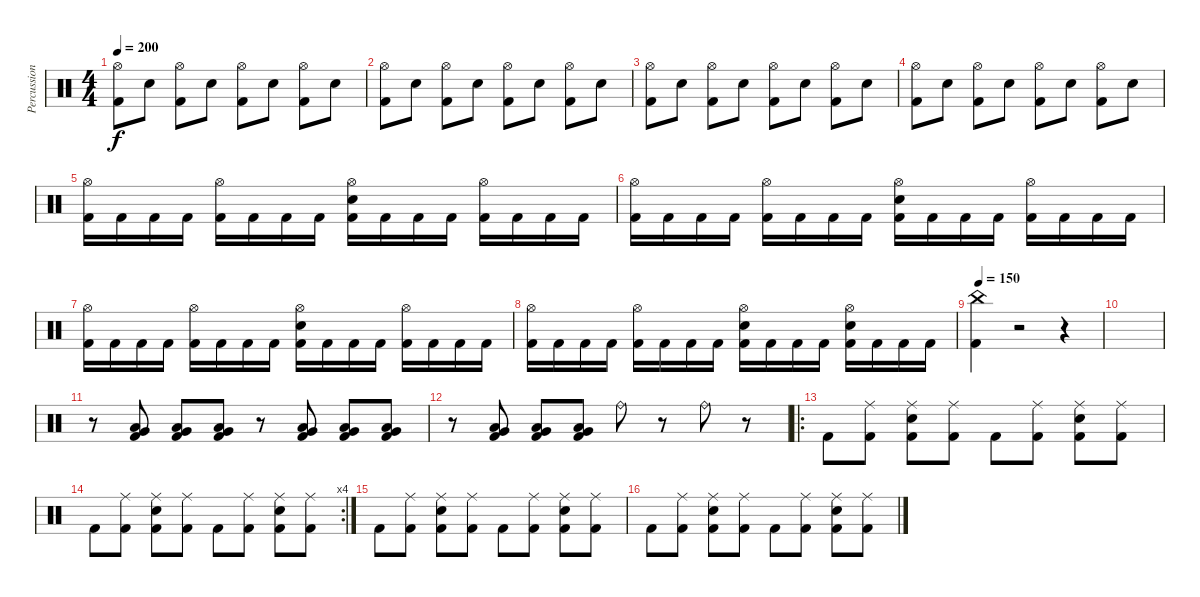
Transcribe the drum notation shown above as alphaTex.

\track ("Percussions" "Percussion") {instrument percussion}
\staff {score}
\articulation defaults
\ts (4 4)
\tempo 200
\clef neutral
\ks c
("Hi-Hat (open)" "Kick (hit) 2").8{dy f} "Snare (hit) 2".8 ("Hi-Hat (open)" "Kick (hit) 2").8 "Snare (hit) 2".8 ("Hi-Hat (open)" "Kick (hit) 2").8 "Snare (hit) 2".8 ("Hi-Hat (open)" "Kick (hit) 2").8 "Snare (hit) 2".8 |
("Hi-Hat (open)" "Kick (hit) 2").8 "Snare (hit) 2".8 ("Hi-Hat (open)" "Kick (hit) 2").8 "Snare (hit) 2".8 ("Hi-Hat (open)" "Kick (hit) 2").8 "Snare (hit) 2".8 ("Hi-Hat (open)" "Kick (hit) 2").8 "Snare (hit) 2".8 |
("Hi-Hat (open)" "Kick (hit) 2").8 "Snare (hit) 2".8 ("Hi-Hat (open)" "Kick (hit) 2").8 "Snare (hit) 2".8 ("Hi-Hat (open)" "Kick (hit) 2").8 "Snare (hit) 2".8 ("Hi-Hat (open)" "Kick (hit) 2").8 "Snare (hit) 2".8 |
("Hi-Hat (open)" "Kick (hit) 2").8 "Snare (hit) 2".8 ("Hi-Hat (open)" "Kick (hit) 2").8 "Snare (hit) 2".8 ("Hi-Hat (open)" "Kick (hit) 2").8 "Snare (hit) 2".8 ("Hi-Hat (open)" "Kick (hit) 2").8 "Snare (hit) 2".8 |
("Hi-Hat (open)" "Kick (hit) 2").16 "Kick (hit) 2".16 "Kick (hit) 2".16 "Kick (hit) 2".16 ("Hi-Hat (open)" "Kick (hit) 2").16 "Kick (hit) 2".16 "Kick (hit) 2".16 "Kick (hit) 2".16 ("Hi-Hat (open)" "Snare (hit) 2" "Kick (hit) 2").16 "Kick (hit) 2".16 "Kick (hit) 2".16 "Kick (hit) 2".16 ("Hi-Hat (open)" "Kick (hit) 2").16 "Kick (hit) 2".16 "Kick (hit) 2".16 "Kick (hit) 2".16 |
("Hi-Hat (open)" "Kick (hit) 2").16 "Kick (hit) 2".16 "Kick (hit) 2".16 "Kick (hit) 2".16 ("Hi-Hat (open)" "Kick (hit) 2").16 "Kick (hit) 2".16 "Kick (hit) 2".16 "Kick (hit) 2".16 ("Hi-Hat (open)" "Snare (hit) 2" "Kick (hit) 2").16 "Kick (hit) 2".16 "Kick (hit) 2".16 "Kick (hit) 2".16 ("Hi-Hat (open)" "Kick (hit) 2").16 "Kick (hit) 2".16 "Kick (hit) 2".16 "Kick (hit) 2".16 |
("Hi-Hat (open)" "Kick (hit) 2").16 "Kick (hit) 2".16 "Kick (hit) 2".16 "Kick (hit) 2".16 ("Hi-Hat (open)" "Kick (hit) 2").16 "Kick (hit) 2".16 "Kick (hit) 2".16 "Kick (hit) 2".16 ("Hi-Hat (open)" "Snare (hit) 2" "Kick (hit) 2").16 "Kick (hit) 2".16 "Kick (hit) 2".16 "Kick (hit) 2".16 ("Hi-Hat (open)" "Kick (hit) 2").16 "Kick (hit) 2".16 "Kick (hit) 2".16 "Kick (hit) 2".16 |
("Hi-Hat (open)" "Kick (hit) 2").16 "Kick (hit) 2".16 "Kick (hit) 2".16 "Kick (hit) 2".16 ("Hi-Hat (open)" "Kick (hit) 2").16 "Kick (hit) 2".16 "Kick (hit) 2".16 "Kick (hit) 2".16 ("Hi-Hat (open)" "Snare (hit) 2" "Kick (hit) 2").16 "Kick (hit) 2".16 "Kick (hit) 2".16 "Kick (hit) 2".16 ("Hi-Hat (open)" "Snare (hit) 2" "Kick (hit) 2").16 "Kick (hit) 2".16 "Kick (hit) 2".16 "Kick (hit) 2".16 |
\tempo 150
("China (hit)" "Kick (hit) 2").4 r.2 r.4 |
|
r.8 ("Very Low Tom (hit)" "Low Tom (hit)" "Kick (hit) 2").8 ("Very Low Tom (hit)" "Low Tom (hit)" "Kick (hit) 2").8 ("Very Low Tom (hit)" "Low Tom (hit)" "Kick (hit) 2").8 r.8 ("Very Low Tom (hit)" "Low Tom (hit)" "Kick (hit) 2").8 ("Very Low Tom (hit)" "Low Tom (hit)" "Kick (hit) 2").8 ("Very Low Tom (hit)" "Low Tom (hit)" "Kick (hit) 2").8 |
r.8 ("Very Low Tom (hit)" "Low Tom (hit)" "Kick (hit) 2").8 ("Very Low Tom (hit)" "Low Tom (hit)" "Kick (hit) 2").8 ("Very Low Tom (hit)" "Low Tom (hit)" "Kick (hit) 2").8 "Ride (bell)".8 r.8 "Ride (bell)".8 r.8 |
\ro "Kick (hit) 2".8
("Ride (middle)" "Kick (hit) 2").8 ("Ride (middle)" "Snare (hit) 2" "Kick (hit) 2").8 ("Ride (middle)" "Kick (hit) 2").8 "Kick (hit) 2".8 ("Ride (middle)" "Kick (hit) 2").8 ("Ride (middle)" "Snare (hit) 2" "Kick (hit) 2").8 ("Ride (middle)" "Kick (hit) 2").8 |
\rc 4 "Kick (hit) 2".8
("Ride (middle)" "Kick (hit) 2").8 ("Ride (middle)" "Snare (hit) 2" "Kick (hit) 2").8 ("Ride (middle)" "Kick (hit) 2").8 "Kick (hit) 2".8 ("Ride (middle)" "Kick (hit) 2").8 ("Ride (middle)" "Snare (hit) 2" "Kick (hit) 2").8 ("Ride (middle)" "Kick (hit) 2").8 |
"Kick (hit) 2".8 ("Ride (middle)" "Kick (hit) 2").8 ("Ride (middle)" "Snare (hit) 2" "Kick (hit) 2").8 ("Ride (middle)" "Kick (hit) 2").8 "Kick (hit) 2".8 ("Ride (middle)" "Kick (hit) 2").8 ("Ride (middle)" "Snare (hit) 2" "Kick (hit) 2").8 ("Ride (middle)" "Kick (hit) 2").8 |
"Kick (hit) 2".8 ("Ride (middle)" "Kick (hit) 2").8 ("Ride (middle)" "Snare (hit) 2" "Kick (hit) 2").8 ("Ride (middle)" "Kick (hit) 2").8 "Kick (hit) 2".8 ("Ride (middle)" "Kick (hit) 2").8 ("Ride (middle)" "Snare (hit) 2" "Kick (hit) 2").8 ("Ride (middle)" "Kick (hit) 2").8
